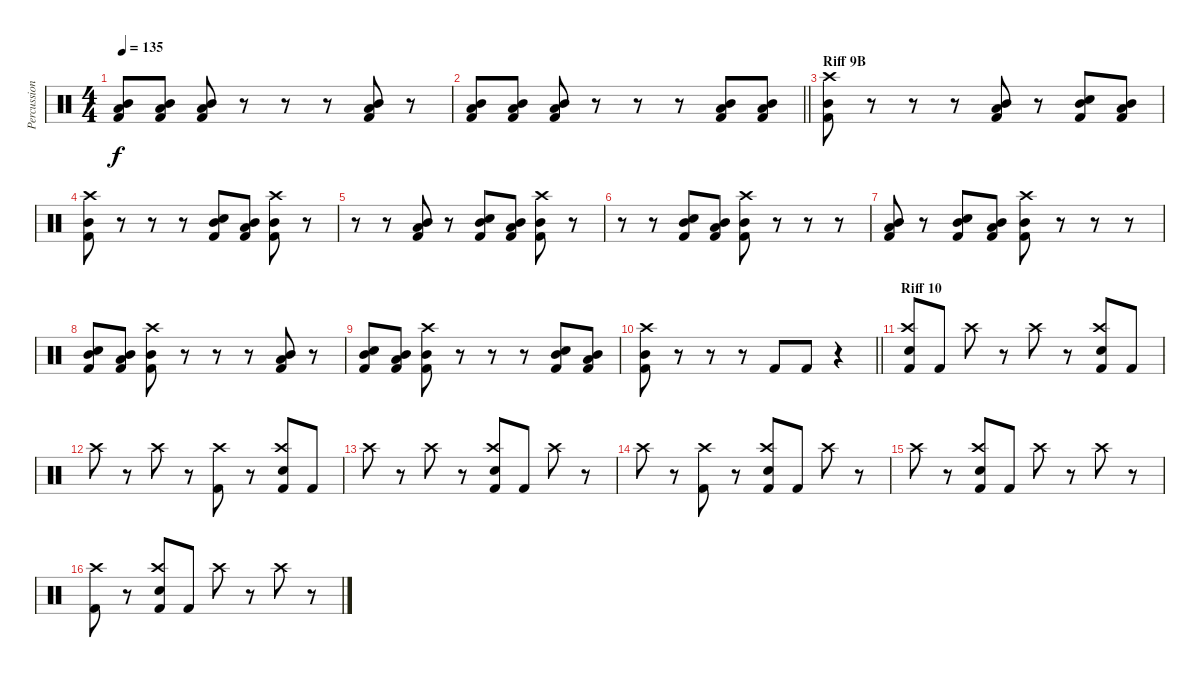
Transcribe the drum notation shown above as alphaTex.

\track ("Percussion" "Percussion") {instrument percussion}
\staff {score}
\articulation defaults
\ts (4 4)
\tempo 135
\clef neutral
\ks c
("Mid Tom (hit)" "Low Tom (hit)" "Kick (hit) 2").8{dy f} ("Mid Tom (hit)" "Low Tom (hit)" "Kick (hit) 2").8 ("Mid Tom (hit)" "Low Tom (hit)" "Kick (hit) 2").8 r.8 r.8 r.8 ("Mid Tom (hit)" "Low Tom (hit)" "Kick (hit) 2").8 r.8 |
\barLineRight lightlight
("Mid Tom (hit)" "Low Tom (hit)" "Kick (hit) 2").8 ("Mid Tom (hit)" "Low Tom (hit)" "Kick (hit) 2").8 ("Mid Tom (hit)" "Low Tom (hit)" "Kick (hit) 2").8 r.8 r.8 r.8 ("Mid Tom (hit)" "Low Tom (hit)" "Kick (hit) 2").8 ("Mid Tom (hit)" "Low Tom (hit)" "Kick (hit) 2").8 |
\section ("" "Riff 9B")
("Crash high (hit)" "Mid Tom (hit)" "Kick (hit) 2").8 r.8 r.8 r.8 ("Mid Tom (hit)" "Low Tom (hit)" "Kick (hit) 2").8 r.8 ("Mid Tom (hit)" "Snare (hit) 2" "Kick (hit) 2").8 ("Mid Tom (hit)" "Low Tom (hit)" "Kick (hit) 2").8 |
("Crash high (hit)" "Mid Tom (hit)" "Kick (hit) 2").8 r.8 r.8 r.8 ("Mid Tom (hit)" "Snare (hit) 2" "Kick (hit) 2").8 ("Mid Tom (hit)" "Low Tom (hit)" "Kick (hit) 2").8 ("Crash high (hit)" "Mid Tom (hit)" "Kick (hit) 2").8 r.8 |
r.8 r.8 ("Mid Tom (hit)" "Low Tom (hit)" "Kick (hit) 2").8 r.8 ("Mid Tom (hit)" "Snare (hit) 2" "Kick (hit) 2").8 ("Mid Tom (hit)" "Low Tom (hit)" "Kick (hit) 2").8 ("Crash high (hit)" "Mid Tom (hit)" "Kick (hit) 2").8 r.8 |
r.8 r.8 ("Mid Tom (hit)" "Snare (hit) 2" "Kick (hit) 2").8 ("Mid Tom (hit)" "Low Tom (hit)" "Kick (hit) 2").8 ("Crash high (hit)" "Mid Tom (hit)" "Kick (hit) 2").8 r.8 r.8 r.8 |
("Mid Tom (hit)" "Low Tom (hit)" "Kick (hit) 2").8 r.8 ("Mid Tom (hit)" "Snare (hit) 2" "Kick (hit) 2").8 ("Mid Tom (hit)" "Low Tom (hit)" "Kick (hit) 2").8 ("Crash high (hit)" "Mid Tom (hit)" "Kick (hit) 2").8 r.8 r.8 r.8 |
("Mid Tom (hit)" "Snare (hit) 2" "Kick (hit) 2").8 ("Mid Tom (hit)" "Low Tom (hit)" "Kick (hit) 2").8 ("Crash high (hit)" "Mid Tom (hit)" "Kick (hit) 2").8 r.8 r.8 r.8 ("Mid Tom (hit)" "Low Tom (hit)" "Kick (hit) 2").8 r.8 |
("Mid Tom (hit)" "Snare (hit) 2" "Kick (hit) 2").8 ("Mid Tom (hit)" "Low Tom (hit)" "Kick (hit) 2").8 ("Crash high (hit)" "Mid Tom (hit)" "Kick (hit) 2").8 r.8 r.8 r.8 ("Mid Tom (hit)" "Snare (hit) 2" "Kick (hit) 2").8 ("Mid Tom (hit)" "Low Tom (hit)" "Kick (hit) 2").8 |
\barLineRight lightlight
("Crash high (hit)" "Mid Tom (hit)" "Kick (hit) 2").8 r.8 r.8 r.8 "Kick (hit) 2".8 "Kick (hit) 2".8 r.4 |
\section ("" "Riff 10")
("Crash high (hit)" "Snare (hit) 2" "Kick (hit) 2").8 "Kick (hit) 2".8 "Crash high (hit)".8 r.8 "Crash high (hit)".8 r.8 ("Crash high (hit)" "Snare (hit) 2" "Kick (hit) 2").8 "Kick (hit) 2".8 |
"Crash high (hit)".8 r.8 "Crash high (hit)".8 r.8 ("Crash high (hit)" "Kick (hit) 2").8 r.8 ("Crash high (hit)" "Snare (hit) 2" "Kick (hit) 2").8 "Kick (hit) 2".8 |
"Crash high (hit)".8 r.8 "Crash high (hit)".8 r.8 ("Crash high (hit)" "Snare (hit) 2" "Kick (hit) 2").8 "Kick (hit) 2".8 "Crash high (hit)".8 r.8 |
"Crash high (hit)".8 r.8 ("Crash high (hit)" "Kick (hit) 2").8 r.8 ("Crash high (hit)" "Snare (hit) 2" "Kick (hit) 2").8 "Kick (hit) 2".8 "Crash high (hit)".8 r.8 |
"Crash high (hit)".8 r.8 ("Crash high (hit)" "Snare (hit) 2" "Kick (hit) 2").8 "Kick (hit) 2".8 "Crash high (hit)".8 r.8 "Crash high (hit)".8 r.8 |
("Crash high (hit)" "Kick (hit) 2").8 r.8 ("Crash high (hit)" "Snare (hit) 2" "Kick (hit) 2").8 "Kick (hit) 2".8 "Crash high (hit)".8 r.8 "Crash high (hit)".8 r.8
